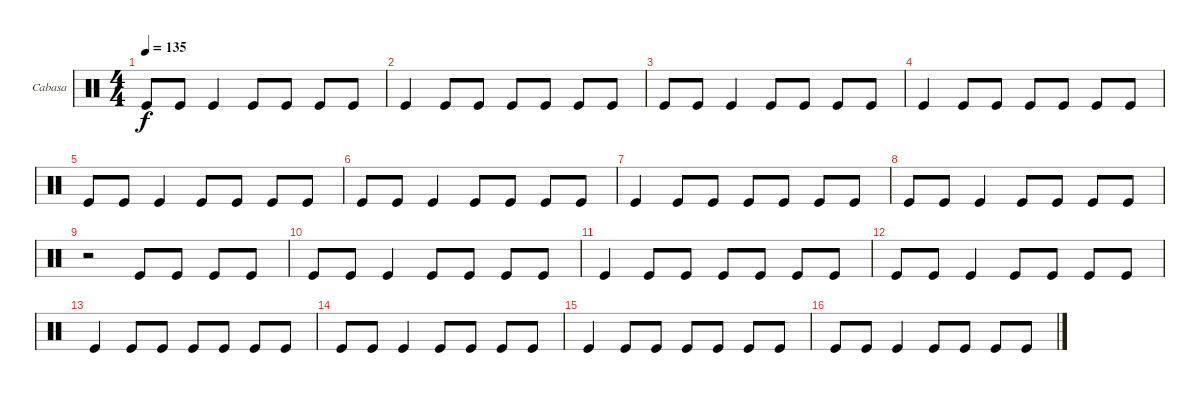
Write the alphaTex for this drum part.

\bracketExtendMode groupsimilarinstruments
\firstSystemTrackNameOrientation horizontal
\otherSystemsTrackNameOrientation horizontal
\track ("Cabasa" "Cabasa") {instrument percussion}
\staff {score}
\articulation defaults
\ts (4 4)
\tempo 135
\clef neutral
\ks c "Kick (hit)".8{dy f} "Kick (hit)".8 "Kick (hit)".4 "Kick (hit)".8 "Kick (hit)".8 "Kick (hit)".8 "Kick (hit)".8
|
"Kick (hit)".4 "Kick (hit)".8 "Kick (hit)".8 "Kick (hit)".8 "Kick (hit)".8 "Kick (hit)".8 "Kick (hit)".8 |
"Kick (hit)".8 "Kick (hit)".8 "Kick (hit)".4 "Kick (hit)".8 "Kick (hit)".8 "Kick (hit)".8 "Kick (hit)".8 |
"Kick (hit)".4 "Kick (hit)".8 "Kick (hit)".8 "Kick (hit)".8 "Kick (hit)".8 "Kick (hit)".8 "Kick (hit)".8 |
"Kick (hit)".8 "Kick (hit)".8 "Kick (hit)".4 "Kick (hit)".8 "Kick (hit)".8 "Kick (hit)".8 "Kick (hit)".8 |
"Kick (hit)".8 "Kick (hit)".8 "Kick (hit)".4 "Kick (hit)".8 "Kick (hit)".8 "Kick (hit)".8 "Kick (hit)".8 |
"Kick (hit)".4 "Kick (hit)".8 "Kick (hit)".8 "Kick (hit)".8 "Kick (hit)".8 "Kick (hit)".8 "Kick (hit)".8 |
"Kick (hit)".8 "Kick (hit)".8 "Kick (hit)".4 "Kick (hit)".8 "Kick (hit)".8 "Kick (hit)".8 "Kick (hit)".8 |
r.2 "Kick (hit)".8 "Kick (hit)".8 "Kick (hit)".8 "Kick (hit)".8 |
"Kick (hit)".8 "Kick (hit)".8 "Kick (hit)".4 "Kick (hit)".8 "Kick (hit)".8 "Kick (hit)".8 "Kick (hit)".8 |
"Kick (hit)".4 "Kick (hit)".8 "Kick (hit)".8 "Kick (hit)".8 "Kick (hit)".8 "Kick (hit)".8 "Kick (hit)".8 |
"Kick (hit)".8 "Kick (hit)".8 "Kick (hit)".4 "Kick (hit)".8 "Kick (hit)".8 "Kick (hit)".8 "Kick (hit)".8 |
"Kick (hit)".4 "Kick (hit)".8 "Kick (hit)".8 "Kick (hit)".8 "Kick (hit)".8 "Kick (hit)".8 "Kick (hit)".8 |
"Kick (hit)".8 "Kick (hit)".8 "Kick (hit)".4 "Kick (hit)".8 "Kick (hit)".8 "Kick (hit)".8 "Kick (hit)".8 |
"Kick (hit)".4 "Kick (hit)".8 "Kick (hit)".8 "Kick (hit)".8 "Kick (hit)".8 "Kick (hit)".8 "Kick (hit)".8 |
"Kick (hit)".8 "Kick (hit)".8 "Kick (hit)".4 "Kick (hit)".8 "Kick (hit)".8 "Kick (hit)".8 "Kick (hit)".8
